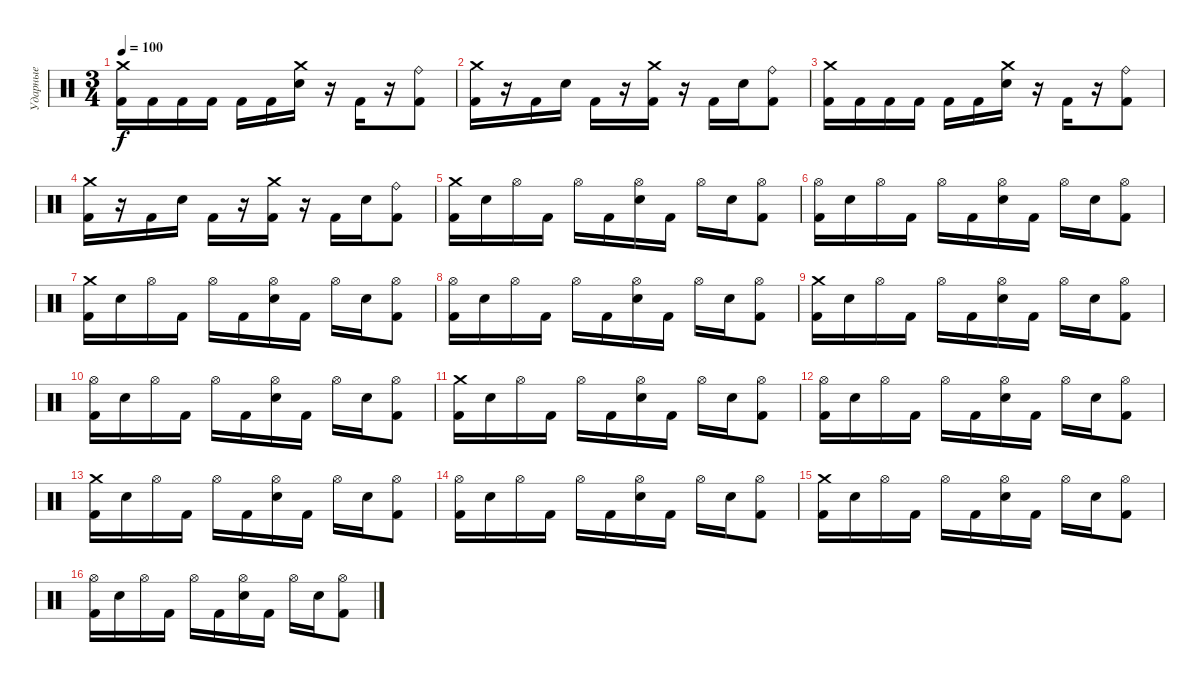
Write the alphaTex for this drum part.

\track ("Ударные" "Ударные") {instrument percussion}
\staff {score}
\articulation defaults
\ts (3 4)
\tempo 100
\clef neutral
\ks c
("Crash medium (hit)" "Kick (hit) 2").16{dy f} "Kick (hit) 2".16 "Kick (hit) 2".16 "Kick (hit) 2".16 "Kick (hit) 2".16 "Kick (hit) 2".16 ("Crash medium (hit)" "Electric Snare (hit)").16 r.16 "Kick (hit) 2".16 r.16 ("Ride (bell)" "Kick (hit) 2").8 |
("Crash medium (hit)" "Kick (hit) 2").16 r.16 "Kick (hit) 2".16 "Electric Snare (hit)".16 "Kick (hit) 2".16 r.16 ("Crash medium (hit)" "Kick (hit) 2").16 r.16 "Kick (hit) 2".16 "Electric Snare (hit)".16 ("Ride (bell)" "Kick (hit) 2").8 |
("Crash medium (hit)" "Kick (hit) 2").16 "Kick (hit) 2".16 "Kick (hit) 2".16 "Kick (hit) 2".16 "Kick (hit) 2".16 "Kick (hit) 2".16 ("Crash medium (hit)" "Electric Snare (hit)").16 r.16 "Kick (hit) 2".16 r.16 ("Ride (bell)" "Kick (hit) 2").8 |
("Crash medium (hit)" "Kick (hit) 2").16 r.16 "Kick (hit) 2".16 "Electric Snare (hit)".16 "Kick (hit) 2".16 r.16 ("Crash medium (hit)" "Kick (hit) 2").16 r.16 "Kick (hit) 2".16 "Electric Snare (hit)".16 ("Ride (bell)" "Kick (hit) 2").8 |
("Crash medium (hit)" "Kick (hit) 2").16 "Electric Snare (hit)".16 "Hi-Hat (open)".16 "Kick (hit) 2".16 "Hi-Hat (open)".16 "Kick (hit) 2".16 ("Hi-Hat (open)" "Electric Snare (hit)").16 "Kick (hit) 2".16 "Hi-Hat (open)".16 "Electric Snare (hit)".16 ("Hi-Hat (open)" "Kick (hit) 2").8 |
("Hi-Hat (open)" "Kick (hit) 2").16 "Electric Snare (hit)".16 "Hi-Hat (open)".16 "Kick (hit) 2".16 "Hi-Hat (open)".16 "Kick (hit) 2".16 ("Hi-Hat (open)" "Electric Snare (hit)").16 "Kick (hit) 2".16 "Hi-Hat (open)".16 "Electric Snare (hit)".16 ("Hi-Hat (open)" "Kick (hit) 2").8 |
("Crash medium (hit)" "Kick (hit) 2").16 "Electric Snare (hit)".16 "Hi-Hat (open)".16 "Kick (hit) 2".16 "Hi-Hat (open)".16 "Kick (hit) 2".16 ("Hi-Hat (open)" "Electric Snare (hit)").16 "Kick (hit) 2".16 "Hi-Hat (open)".16 "Electric Snare (hit)".16 ("Hi-Hat (open)" "Kick (hit) 2").8 |
("Hi-Hat (open)" "Kick (hit) 2").16 "Electric Snare (hit)".16 "Hi-Hat (open)".16 "Kick (hit) 2".16 "Hi-Hat (open)".16 "Kick (hit) 2".16 ("Hi-Hat (open)" "Electric Snare (hit)").16 "Kick (hit) 2".16 "Hi-Hat (open)".16 "Electric Snare (hit)".16 ("Hi-Hat (open)" "Kick (hit) 2").8 |
("Crash medium (hit)" "Kick (hit) 2").16 "Electric Snare (hit)".16 "Hi-Hat (open)".16 "Kick (hit) 2".16 "Hi-Hat (open)".16 "Kick (hit) 2".16 ("Hi-Hat (open)" "Electric Snare (hit)").16 "Kick (hit) 2".16 "Hi-Hat (open)".16 "Electric Snare (hit)".16 ("Hi-Hat (open)" "Kick (hit) 2").8 |
("Hi-Hat (open)" "Kick (hit) 2").16 "Electric Snare (hit)".16 "Hi-Hat (open)".16 "Kick (hit) 2".16 "Hi-Hat (open)".16 "Kick (hit) 2".16 ("Hi-Hat (open)" "Electric Snare (hit)").16 "Kick (hit) 2".16 "Hi-Hat (open)".16 "Electric Snare (hit)".16 ("Hi-Hat (open)" "Kick (hit) 2").8 |
("Crash medium (hit)" "Kick (hit) 2").16 "Electric Snare (hit)".16 "Hi-Hat (open)".16 "Kick (hit) 2".16 "Hi-Hat (open)".16 "Kick (hit) 2".16 ("Hi-Hat (open)" "Electric Snare (hit)").16 "Kick (hit) 2".16 "Hi-Hat (open)".16 "Electric Snare (hit)".16 ("Hi-Hat (open)" "Kick (hit) 2").8 |
("Hi-Hat (open)" "Kick (hit) 2").16 "Electric Snare (hit)".16 "Hi-Hat (open)".16 "Kick (hit) 2".16 "Hi-Hat (open)".16 "Kick (hit) 2".16 ("Hi-Hat (open)" "Electric Snare (hit)").16 "Kick (hit) 2".16 "Hi-Hat (open)".16 "Electric Snare (hit)".16 ("Hi-Hat (open)" "Kick (hit) 2").8 |
("Crash medium (hit)" "Kick (hit) 2").16 "Electric Snare (hit)".16 "Hi-Hat (open)".16 "Kick (hit) 2".16 "Hi-Hat (open)".16 "Kick (hit) 2".16 ("Hi-Hat (open)" "Electric Snare (hit)").16 "Kick (hit) 2".16 "Hi-Hat (open)".16 "Electric Snare (hit)".16 ("Hi-Hat (open)" "Kick (hit) 2").8 |
("Hi-Hat (open)" "Kick (hit) 2").16 "Electric Snare (hit)".16 "Hi-Hat (open)".16 "Kick (hit) 2".16 "Hi-Hat (open)".16 "Kick (hit) 2".16 ("Hi-Hat (open)" "Electric Snare (hit)").16 "Kick (hit) 2".16 "Hi-Hat (open)".16 "Electric Snare (hit)".16 ("Hi-Hat (open)" "Kick (hit) 2").8 |
("Crash medium (hit)" "Kick (hit) 2").16 "Electric Snare (hit)".16 "Hi-Hat (open)".16 "Kick (hit) 2".16 "Hi-Hat (open)".16 "Kick (hit) 2".16 ("Hi-Hat (open)" "Electric Snare (hit)").16 "Kick (hit) 2".16 "Hi-Hat (open)".16 "Electric Snare (hit)".16 ("Hi-Hat (open)" "Kick (hit) 2").8 |
("Hi-Hat (open)" "Kick (hit) 2").16 "Electric Snare (hit)".16 "Hi-Hat (open)".16 "Kick (hit) 2".16 "Hi-Hat (open)".16 "Kick (hit) 2".16 ("Hi-Hat (open)" "Electric Snare (hit)").16 "Kick (hit) 2".16 "Hi-Hat (open)".16 "Electric Snare (hit)".16 ("Hi-Hat (open)" "Kick (hit) 2").8
